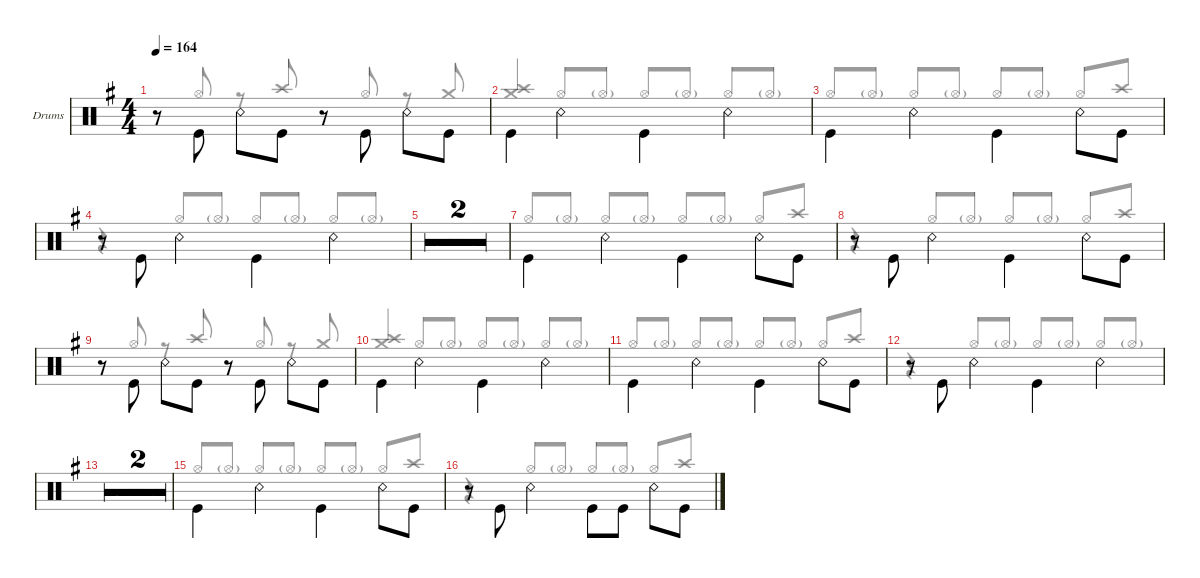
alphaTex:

\defaultSystemsLayout 4
\hideDynamics
\bracketExtendMode groupsimilarinstruments
\firstSystemTrackNameOrientation horizontal
\otherSystemsTrackNameOrientation horizontal
\track ("Drumkit" "Drums") {multiBarRest instrument percussion}
\staff {score}
\articulation defaults
\voice
\ts (4 4)
\tempo 164
\clef neutral
\ks eminor
r.8{dy ff} "Kick (hit)".8{beam invert} "Snare (rim shot)".8{beam invert} "Kick (hit)".8 r.8{beam invert} "Kick (hit)".8{beam invert} "Snare (rim shot)".8{beam invert} "Kick (hit)".8 |
"Kick (hit)".4{beam invert} "Snare (rim shot)".4{beam invert} "Kick (hit)".4{beam invert} "Snare (rim shot)".4{beam invert} |
"Kick (hit)".4{beam invert} "Snare (rim shot)".4{beam invert} "Kick (hit)".4{beam invert} "Snare (rim shot)".8{beam invert} "Kick (hit)".8 |
r.8 "Kick (hit)".8{beam invert} "Snare (rim shot)".4{beam invert} "Kick (hit)".4{beam invert} "Snare (rim shot)".4{beam invert} |
\simile firstofdouble
|
\simile secondofdouble
|
\simile none "Kick (hit)".4{beam invert} "Snare (rim shot)".4{beam invert} "Kick (hit)".4{beam invert} "Snare (rim shot)".8{beam invert} "Kick (hit)".8
|
r.8 "Kick (hit)".8{beam invert} "Snare (rim shot)".4{beam invert} "Kick (hit)".4{beam invert} "Snare (rim shot)".8{beam invert} "Kick (hit)".8 |
r.8 "Kick (hit)".8{beam invert} "Snare (rim shot)".8{beam invert} "Kick (hit)".8 r.8{beam invert} "Kick (hit)".8{beam invert} "Snare (rim shot)".8{beam invert} "Kick (hit)".8 |
"Kick (hit)".4{beam invert} "Snare (rim shot)".4{beam invert} "Kick (hit)".4{beam invert} "Snare (rim shot)".4{beam invert} |
"Kick (hit)".4{beam invert} "Snare (rim shot)".4{beam invert} "Kick (hit)".4{beam invert} "Snare (rim shot)".8{beam invert} "Kick (hit)".8 |
r.8 "Kick (hit)".8{beam invert} "Snare (rim shot)".4{beam invert} "Kick (hit)".4{beam invert} "Snare (rim shot)".4{beam invert} |
\simile firstofdouble
|
\simile secondofdouble
|
\simile none "Kick (hit)".4{beam invert} "Snare (rim shot)".4{beam invert} "Kick (hit)".4{beam invert} "Snare (rim shot)".8{beam invert} "Kick (hit)".8
|
r.8 "Kick (hit)".8{beam invert} "Snare (rim shot)".4{beam invert} "Kick (hit)".8{beam invert} "Kick (hit)".8 "Snare (rim shot)".8{beam invert} "Kick (hit)".8
\voice
\clef neutral
\ottava regular
\simile none
\ks eminor
r.8{dy f beam invert} "Hi-Hat (open)".8{beam invert} r.8{beam invert} "Crash high (hit)".8{beam invert} r.8{beam invert} "Hi-Hat (open)".8{beam invert} r.8{beam invert} "Crash medium (hit)".8{beam invert} |
("Crash medium (hit)" "Crash high (hit)").4{beam invert} "Hi-Hat (open)".8{beam invert} "Hi-Hat (open)"{g}.8 "Hi-Hat (open)".8{beam invert} "Hi-Hat (open)"{g}.8 "Hi-Hat (open)".8{beam invert} "Hi-Hat (open)"{g}.8 |
"Hi-Hat (open)".8{beam invert} "Hi-Hat (open)"{g}.8 "Hi-Hat (open)".8{beam invert} "Hi-Hat (open)"{g}.8 "Hi-Hat (open)".8{beam invert} "Hi-Hat (open)"{g}.8 "Hi-Hat (open)".8{beam invert} "Crash high (hit)".8 |
r.4 "Hi-Hat (open)".8{beam invert} "Hi-Hat (open)"{g}.8 "Hi-Hat (open)".8{beam invert} "Hi-Hat (open)"{g}.8 "Hi-Hat (open)".8{beam invert} "Hi-Hat (open)"{g}.8 |
\simile firstofdouble
|
\simile secondofdouble
|
\simile none "Hi-Hat (open)".8{beam invert} "Hi-Hat (open)"{g}.8 "Hi-Hat (open)".8{beam invert} "Hi-Hat (open)"{g}.8 "Hi-Hat (open)".8{beam invert} "Hi-Hat (open)"{g}.8 "Hi-Hat (open)".8{beam invert} "Crash high (hit)".8
|
r.4 "Hi-Hat (open)".8{beam invert} "Hi-Hat (open)"{g}.8 "Hi-Hat (open)".8{beam invert} "Hi-Hat (open)"{g}.8 "Hi-Hat (open)".8{beam invert} "Crash high (hit)".8 |
r.8{beam invert} "Hi-Hat (open)".8{beam invert} r.8{beam invert} "Crash high (hit)".8{beam invert} r.8{beam invert} "Hi-Hat (open)".8{beam invert} r.8{beam invert} "Crash medium (hit)".8{beam invert} |
("Crash medium (hit)" "Crash high (hit)").4{beam invert} "Hi-Hat (open)".8{beam invert} "Hi-Hat (open)"{g}.8 "Hi-Hat (open)".8{beam invert} "Hi-Hat (open)"{g}.8 "Hi-Hat (open)".8{beam invert} "Hi-Hat (open)"{g}.8 |
"Hi-Hat (open)".8{beam invert} "Hi-Hat (open)"{g}.8 "Hi-Hat (open)".8{beam invert} "Hi-Hat (open)"{g}.8 "Hi-Hat (open)".8{beam invert} "Hi-Hat (open)"{g}.8 "Hi-Hat (open)".8{beam invert} "Crash high (hit)".8 |
r.4 "Hi-Hat (open)".8{beam invert} "Hi-Hat (open)"{g}.8 "Hi-Hat (open)".8{beam invert} "Hi-Hat (open)"{g}.8 "Hi-Hat (open)".8{beam invert} "Hi-Hat (open)"{g}.8 |
\simile firstofdouble
|
\simile secondofdouble
|
\simile none "Hi-Hat (open)".8{beam invert} "Hi-Hat (open)"{g}.8 "Hi-Hat (open)".8{beam invert} "Hi-Hat (open)"{g}.8 "Hi-Hat (open)".8{beam invert} "Hi-Hat (open)"{g}.8 "Hi-Hat (open)".8{beam invert} "Crash high (hit)".8
|
r.4 "Hi-Hat (open)".8{beam invert} "Hi-Hat (open)"{g}.8 "Hi-Hat (open)".8{beam invert} "Hi-Hat (open)"{g}.8 "Hi-Hat (open)".8{beam invert} "Crash high (hit)".8
